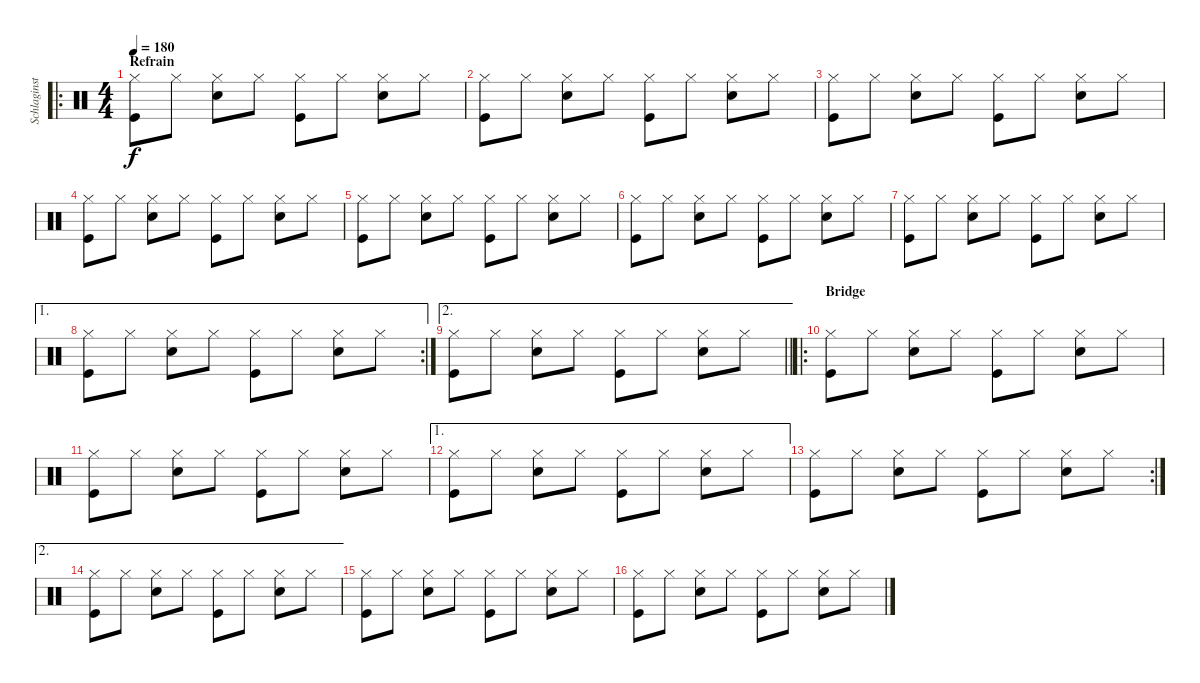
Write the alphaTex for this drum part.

\track ("Schlaginstrumente - Auswahl" "Schlaginst") {instrument percussion}
\staff {score}
\articulation defaults
\ro
\ts (4 4)
\section ("" "Refrain")
\tempo 180
\clef neutral
\ks c
("Hi-Hat (closed)" "Kick (hit)").8{dy f} "Hi-Hat (closed)".8 ("Hi-Hat (closed)" "Snare (hit) 2").8 "Hi-Hat (closed)".8 ("Hi-Hat (closed)" "Kick (hit)").8 "Hi-Hat (closed)".8 ("Hi-Hat (closed)" "Snare (hit) 2").8 "Hi-Hat (closed)".8 |
("Hi-Hat (closed)" "Kick (hit)").8 "Hi-Hat (closed)".8 ("Hi-Hat (closed)" "Snare (hit) 2").8 "Hi-Hat (closed)".8 ("Hi-Hat (closed)" "Kick (hit)").8 "Hi-Hat (closed)".8 ("Hi-Hat (closed)" "Snare (hit) 2").8 "Hi-Hat (closed)".8 |
("Hi-Hat (closed)" "Kick (hit)").8 "Hi-Hat (closed)".8 ("Hi-Hat (closed)" "Snare (hit) 2").8 "Hi-Hat (closed)".8 ("Hi-Hat (closed)" "Kick (hit)").8 "Hi-Hat (closed)".8 ("Hi-Hat (closed)" "Snare (hit) 2").8 "Hi-Hat (closed)".8 |
("Hi-Hat (closed)" "Kick (hit)").8 "Hi-Hat (closed)".8 ("Hi-Hat (closed)" "Snare (hit) 2").8 "Hi-Hat (closed)".8 ("Hi-Hat (closed)" "Kick (hit)").8 "Hi-Hat (closed)".8 ("Hi-Hat (closed)" "Snare (hit) 2").8 "Hi-Hat (closed)".8 |
("Hi-Hat (closed)" "Kick (hit)").8 "Hi-Hat (closed)".8 ("Hi-Hat (closed)" "Snare (hit) 2").8 "Hi-Hat (closed)".8 ("Hi-Hat (closed)" "Kick (hit)").8 "Hi-Hat (closed)".8 ("Hi-Hat (closed)" "Snare (hit) 2").8 "Hi-Hat (closed)".8 |
("Hi-Hat (closed)" "Kick (hit)").8 "Hi-Hat (closed)".8 ("Hi-Hat (closed)" "Snare (hit) 2").8 "Hi-Hat (closed)".8 ("Hi-Hat (closed)" "Kick (hit)").8 "Hi-Hat (closed)".8 ("Hi-Hat (closed)" "Snare (hit) 2").8 "Hi-Hat (closed)".8 |
("Hi-Hat (closed)" "Kick (hit)").8 "Hi-Hat (closed)".8 ("Hi-Hat (closed)" "Snare (hit) 2").8 "Hi-Hat (closed)".8 ("Hi-Hat (closed)" "Kick (hit)").8 "Hi-Hat (closed)".8 ("Hi-Hat (closed)" "Snare (hit) 2").8 "Hi-Hat (closed)".8 |
\ae 1
\rc 2
("Hi-Hat (closed)" "Kick (hit)").8 "Hi-Hat (closed)".8 ("Hi-Hat (closed)" "Snare (hit) 2").8 "Hi-Hat (closed)".8 ("Hi-Hat (closed)" "Kick (hit)").8 "Hi-Hat (closed)".8 ("Hi-Hat (closed)" "Snare (hit) 2").8 "Hi-Hat (closed)".8 |
\ae 2
\barLineRight lightlight
("Hi-Hat (closed)" "Kick (hit)").8 "Hi-Hat (closed)".8 ("Hi-Hat (closed)" "Snare (hit) 2").8 "Hi-Hat (closed)".8 ("Hi-Hat (closed)" "Kick (hit)").8 "Hi-Hat (closed)".8 ("Hi-Hat (closed)" "Snare (hit) 2").8 "Hi-Hat (closed)".8 |
\ro
\section ("" "Bridge")
("Hi-Hat (closed)" "Kick (hit)").8 "Hi-Hat (closed)".8 ("Hi-Hat (closed)" "Snare (hit) 2").8 "Hi-Hat (closed)".8 ("Hi-Hat (closed)" "Kick (hit)").8 "Hi-Hat (closed)".8 ("Hi-Hat (closed)" "Snare (hit) 2").8 "Hi-Hat (closed)".8 |
("Hi-Hat (closed)" "Kick (hit)").8 "Hi-Hat (closed)".8 ("Hi-Hat (closed)" "Snare (hit) 2").8 "Hi-Hat (closed)".8 ("Hi-Hat (closed)" "Kick (hit)").8 "Hi-Hat (closed)".8 ("Hi-Hat (closed)" "Snare (hit) 2").8 "Hi-Hat (closed)".8 |
\ae 1
("Hi-Hat (closed)" "Kick (hit)").8 "Hi-Hat (closed)".8 ("Hi-Hat (closed)" "Snare (hit) 2").8 "Hi-Hat (closed)".8 ("Hi-Hat (closed)" "Kick (hit)").8 "Hi-Hat (closed)".8 ("Hi-Hat (closed)" "Snare (hit) 2").8 "Hi-Hat (closed)".8 |
\rc 2
("Hi-Hat (closed)" "Kick (hit)").8 "Hi-Hat (closed)".8 ("Hi-Hat (closed)" "Snare (hit) 2").8 "Hi-Hat (closed)".8 ("Hi-Hat (closed)" "Kick (hit)").8 "Hi-Hat (closed)".8 ("Hi-Hat (closed)" "Snare (hit) 2").8 "Hi-Hat (closed)".8 |
\ae 2
("Hi-Hat (closed)" "Kick (hit)").8 "Hi-Hat (closed)".8 ("Hi-Hat (closed)" "Snare (hit) 2").8 "Hi-Hat (closed)".8 ("Hi-Hat (closed)" "Kick (hit)").8 "Hi-Hat (closed)".8 ("Hi-Hat (closed)" "Snare (hit) 2").8 "Hi-Hat (closed)".8 |
("Hi-Hat (closed)" "Kick (hit)").8 "Hi-Hat (closed)".8 ("Hi-Hat (closed)" "Snare (hit) 2").8 "Hi-Hat (closed)".8 ("Hi-Hat (closed)" "Kick (hit)").8 "Hi-Hat (closed)".8 ("Hi-Hat (closed)" "Snare (hit) 2").8 "Hi-Hat (closed)".8 |
("Hi-Hat (closed)" "Kick (hit)").8 "Hi-Hat (closed)".8 ("Hi-Hat (closed)" "Snare (hit) 2").8 "Hi-Hat (closed)".8 ("Hi-Hat (closed)" "Kick (hit)").8 "Hi-Hat (closed)".8 ("Hi-Hat (closed)" "Snare (hit) 2").8 "Hi-Hat (closed)".8
